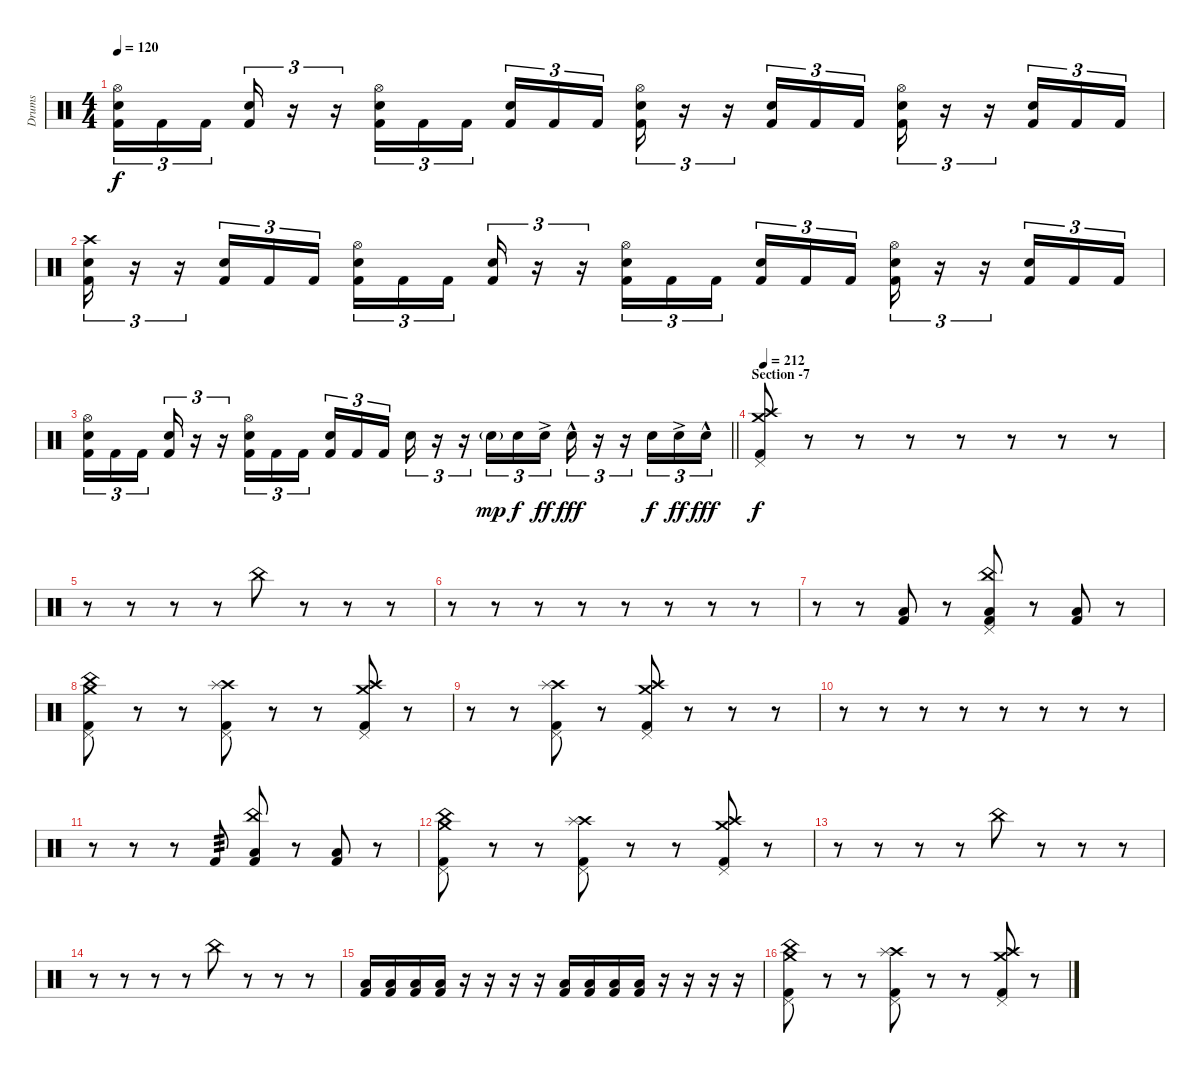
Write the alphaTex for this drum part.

\track ("Drums" "Drums") {instrument percussion}
\staff {score}
\articulation defaults
\ts (4 4)
\tempo 120
\clef neutral
\ks c
("Hi-Hat (open)" "Snare (hit) 2" "Kick (hit) 2").16{tu (3 2) dy f} "Kick (hit) 2".16{tu (3 2)} "Kick (hit) 2".16{tu (3 2) beam splitsecondary} ("Snare (hit) 2" "Kick (hit) 2").16{tu (3 2)} r.16{tu (3 2)} r.16{tu (3 2)} ("Hi-Hat (open)" "Snare (hit) 2" "Kick (hit) 2").16{tu (3 2)} "Kick (hit) 2".16{tu (3 2)} "Kick (hit) 2".16{tu (3 2) beam splitsecondary} ("Snare (hit) 2" "Kick (hit) 2").16{tu (3 2)} "Kick (hit) 2".16{tu (3 2)} "Kick (hit) 2".16{tu (3 2)} ("Hi-Hat (open)" "Snare (hit) 2" "Kick (hit) 2").16{tu (3 2)} r.16{tu (3 2)} r.16{tu (3 2)} ("Snare (hit) 2" "Kick (hit) 2").16{tu (3 2)} "Kick (hit) 2".16{tu (3 2)} "Kick (hit) 2".16{tu (3 2)} ("Hi-Hat (open)" "Snare (hit) 2" "Kick (hit) 2").16{tu (3 2)} r.16{tu (3 2)} r.16{tu (3 2)} ("Snare (hit) 2" "Kick (hit) 2").16{tu (3 2)} "Kick (hit) 2".16{tu (3 2)} "Kick (hit) 2".16{tu (3 2)} |
("Crash high (hit)" "Snare (hit) 2" "Kick (hit) 2").16{tu (3 2)} r.16{tu (3 2)} r.16{tu (3 2)} ("Snare (hit) 2" "Kick (hit) 2").16{tu (3 2)} "Kick (hit) 2".16{tu (3 2)} "Kick (hit) 2".16{tu (3 2)} ("Hi-Hat (open)" "Snare (hit) 2" "Kick (hit) 2").16{tu (3 2)} "Kick (hit) 2".16{tu (3 2)} "Kick (hit) 2".16{tu (3 2) beam splitsecondary} ("Snare (hit) 2" "Kick (hit) 2").16{tu (3 2)} r.16{tu (3 2)} r.16{tu (3 2)} ("Hi-Hat (open)" "Snare (hit) 2" "Kick (hit) 2").16{tu (3 2)} "Kick (hit) 2".16{tu (3 2)} "Kick (hit) 2".16{tu (3 2) beam splitsecondary} ("Snare (hit) 2" "Kick (hit) 2").16{tu (3 2)} "Kick (hit) 2".16{tu (3 2)} "Kick (hit) 2".16{tu (3 2)} ("Hi-Hat (open)" "Snare (hit) 2" "Kick (hit) 2").16{tu (3 2)} r.16{tu (3 2)} r.16{tu (3 2)} ("Snare (hit) 2" "Kick (hit) 2").16{tu (3 2)} "Kick (hit) 2".16{tu (3 2)} "Kick (hit) 2".16{tu (3 2)} |
\barLineRight lightlight
("Hi-Hat (open)" "Snare (hit) 2" "Kick (hit) 2").16{tu (3 2)} "Kick (hit) 2".16{tu (3 2)} "Kick (hit) 2".16{tu (3 2) beam splitsecondary} ("Snare (hit) 2" "Kick (hit) 2").16{tu (3 2)} r.16{tu (3 2)} r.16{tu (3 2)} ("Hi-Hat (open)" "Snare (hit) 2" "Kick (hit) 2").16{tu (3 2)} "Kick (hit) 2".16{tu (3 2)} "Kick (hit) 2".16{tu (3 2) beam splitsecondary} ("Snare (hit) 2" "Kick (hit) 2").16{tu (3 2)} "Kick (hit) 2".16{tu (3 2)} "Kick (hit) 2".16{tu (3 2)} "Snare (hit) 2".16{tu (3 2)} r.16{tu (3 2)} r.16{tu (3 2)} "Snare (hit) 2"{g}.16{tu (3 2) dy mp} "Snare (hit) 2".16{tu (3 2) dy f} "Snare (hit) 2"{ac}.16{tu (3 2) dy ff} "Snare (hit) 2"{hac}.16{tu (3 2) dy fff} r.16{tu (3 2)} r.16{tu (3 2)} "Snare (hit) 2".16{tu (3 2) dy f} "Snare (hit) 2"{ac}.16{tu (3 2) dy ff} "Snare (hit) 2"{hac}.16{tu (3 2) dy fff} |
\section ("" "Section -7")
\tempo 212
("Crash high (hit)" "Crash medium (hit)" "Pedal Hi-Hat (hit)" "Kick (hit) 2").8{dy f} r.8 r.8 r.8 r.8 r.8 r.8 r.8 |
r.8 r.8 r.8 r.8 "China (hit)".8 r.8 r.8 r.8 |
r.8 r.8 r.8 r.8 r.8 r.8 r.8 r.8 |
r.8 r.8 ("Low Tom (hit)" "Kick (hit) 2").8 r.8 ("China (hit)" "Pedal Hi-Hat (hit)" "Low Tom (hit)" "Kick (hit) 2").8 r.8 ("Low Tom (hit)" "Kick (hit) 2").8 r.8 |
("Crash medium (hit)" "China (hit)" "Pedal Hi-Hat (hit)" "Kick (hit) 2").8 r.8 r.8 ("Crash high (hit)" "Splash (hit)" "Pedal Hi-Hat (hit)" "Kick (hit) 2").8 r.8 r.8 ("Crash medium (hit)" "Crash high (hit)" "Pedal Hi-Hat (hit)" "Kick (hit) 2").8 r.8 |
r.8 r.8 ("Crash high (hit)" "Splash (hit)" "Pedal Hi-Hat (hit)" "Kick (hit) 2").8 r.8 ("Crash medium (hit)" "Crash high (hit)" "Pedal Hi-Hat (hit)" "Kick (hit) 2").8 r.8 r.8 r.8 |
r.8 r.8 r.8 r.8 r.8 r.8 r.8 r.8 |
r.8 r.8 r.8 "Kick (hit) 2".8{tp 3} ("China (hit)" "Low Tom (hit)" "Kick (hit) 2").8 r.8 ("Low Tom (hit)" "Kick (hit) 2").8 r.8 |
("Crash medium (hit)" "China (hit)" "Pedal Hi-Hat (hit)" "Kick (hit) 2").8 r.8 r.8 ("Crash high (hit)" "Splash (hit)" "Pedal Hi-Hat (hit)" "Kick (hit) 2").8 r.8 r.8 ("Crash medium (hit)" "Crash high (hit)" "Pedal Hi-Hat (hit)" "Kick (hit) 2").8 r.8 |
r.8 r.8 r.8 r.8 "China (hit)".8 r.8 r.8 r.8 |
r.8 r.8 r.8 r.8 "China (hit)".8 r.8 r.8 r.8 |
("Low Tom (hit)" "Kick (hit) 2").16 ("Low Tom (hit)" "Kick (hit) 2").16 ("Low Tom (hit)" "Kick (hit) 2").16 ("Low Tom (hit)" "Kick (hit) 2").16 r.16 r.16 r.16 r.16 ("Low Tom (hit)" "Kick (hit) 2").16 ("Low Tom (hit)" "Kick (hit) 2").16 ("Low Tom (hit)" "Kick (hit) 2").16 ("Low Tom (hit)" "Kick (hit) 2").16 r.16 r.16 r.16 r.16 |
("Crash medium (hit)" "China (hit)" "Pedal Hi-Hat (hit)" "Kick (hit) 2").8 r.8 r.8 ("Crash high (hit)" "Splash (hit)" "Pedal Hi-Hat (hit)" "Kick (hit) 2").8 r.8 r.8 ("Crash medium (hit)" "Crash high (hit)" "Pedal Hi-Hat (hit)" "Kick (hit) 2").8 r.8
